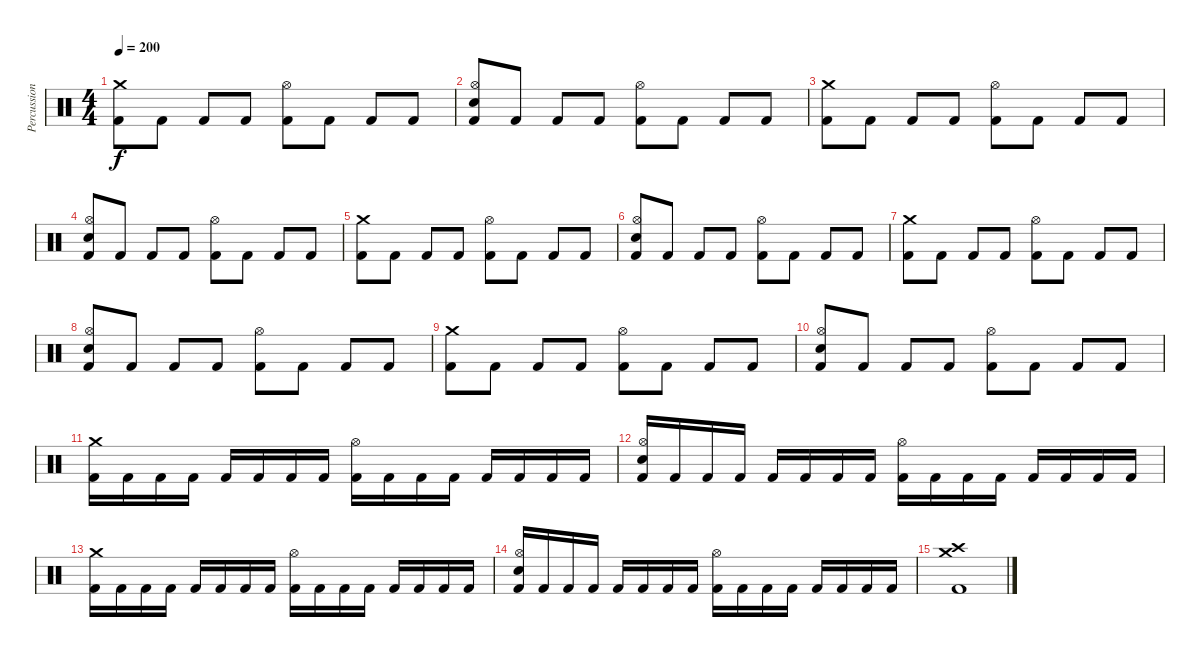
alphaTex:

\track ("Percussions" "Percussion") {instrument percussion}
\staff {score}
\articulation defaults
\ts (4 4)
\tempo 200
\clef neutral
\ks c
("Crash medium (hit)" "Kick (hit) 2").8{dy f} "Kick (hit) 2".8 "Kick (hit) 2".8 "Kick (hit) 2".8 ("Hi-Hat (open)" "Kick (hit) 2").8 "Kick (hit) 2".8 "Kick (hit) 2".8 "Kick (hit) 2".8 |
("Hi-Hat (open)" "Electric Snare (hit)" "Kick (hit) 2").8 "Kick (hit) 2".8 "Kick (hit) 2".8 "Kick (hit) 2".8 ("Hi-Hat (open)" "Kick (hit) 2").8 "Kick (hit) 2".8 "Kick (hit) 2".8 "Kick (hit) 2".8 |
("Crash medium (hit)" "Kick (hit) 2").8 "Kick (hit) 2".8 "Kick (hit) 2".8 "Kick (hit) 2".8 ("Hi-Hat (open)" "Kick (hit) 2").8 "Kick (hit) 2".8 "Kick (hit) 2".8 "Kick (hit) 2".8 |
("Hi-Hat (open)" "Electric Snare (hit)" "Kick (hit) 2").8 "Kick (hit) 2".8 "Kick (hit) 2".8 "Kick (hit) 2".8 ("Hi-Hat (open)" "Kick (hit) 2").8 "Kick (hit) 2".8 "Kick (hit) 2".8 "Kick (hit) 2".8 |
("Crash medium (hit)" "Kick (hit) 2").8 "Kick (hit) 2".8 "Kick (hit) 2".8 "Kick (hit) 2".8 ("Hi-Hat (open)" "Kick (hit) 2").8 "Kick (hit) 2".8 "Kick (hit) 2".8 "Kick (hit) 2".8 |
("Hi-Hat (open)" "Electric Snare (hit)" "Kick (hit) 2").8 "Kick (hit) 2".8 "Kick (hit) 2".8 "Kick (hit) 2".8 ("Hi-Hat (open)" "Kick (hit) 2").8 "Kick (hit) 2".8 "Kick (hit) 2".8 "Kick (hit) 2".8 |
("Crash medium (hit)" "Kick (hit) 2").8 "Kick (hit) 2".8 "Kick (hit) 2".8 "Kick (hit) 2".8 ("Hi-Hat (open)" "Kick (hit) 2").8 "Kick (hit) 2".8 "Kick (hit) 2".8 "Kick (hit) 2".8 |
("Hi-Hat (open)" "Electric Snare (hit)" "Kick (hit) 2").8 "Kick (hit) 2".8 "Kick (hit) 2".8 "Kick (hit) 2".8 ("Hi-Hat (open)" "Kick (hit) 2").8 "Kick (hit) 2".8 "Kick (hit) 2".8 "Kick (hit) 2".8 |
("Crash medium (hit)" "Kick (hit) 2").8 "Kick (hit) 2".8 "Kick (hit) 2".8 "Kick (hit) 2".8 ("Hi-Hat (open)" "Kick (hit) 2").8 "Kick (hit) 2".8 "Kick (hit) 2".8 "Kick (hit) 2".8 |
("Hi-Hat (open)" "Electric Snare (hit)" "Kick (hit) 2").8 "Kick (hit) 2".8 "Kick (hit) 2".8 "Kick (hit) 2".8 ("Hi-Hat (open)" "Kick (hit) 2").8 "Kick (hit) 2".8 "Kick (hit) 2".8 "Kick (hit) 2".8 |
("Crash medium (hit)" "Kick (hit) 2").16 "Kick (hit) 2".16 "Kick (hit) 2".16 "Kick (hit) 2".16 "Kick (hit) 2".16 "Kick (hit) 2".16 "Kick (hit) 2".16 "Kick (hit) 2".16 ("Hi-Hat (open)" "Kick (hit) 2").16 "Kick (hit) 2".16 "Kick (hit) 2".16 "Kick (hit) 2".16 "Kick (hit) 2".16 "Kick (hit) 2".16 "Kick (hit) 2".16 "Kick (hit) 2".16 |
("Hi-Hat (open)" "Electric Snare (hit)" "Kick (hit) 2").16 "Kick (hit) 2".16 "Kick (hit) 2".16 "Kick (hit) 2".16 "Kick (hit) 2".16 "Kick (hit) 2".16 "Kick (hit) 2".16 "Kick (hit) 2".16 ("Hi-Hat (open)" "Kick (hit) 2").16 "Kick (hit) 2".16 "Kick (hit) 2".16 "Kick (hit) 2".16 "Kick (hit) 2".16 "Kick (hit) 2".16 "Kick (hit) 2".16 "Kick (hit) 2".16 |
("Crash medium (hit)" "Kick (hit) 2").16 "Kick (hit) 2".16 "Kick (hit) 2".16 "Kick (hit) 2".16 "Kick (hit) 2".16 "Kick (hit) 2".16 "Kick (hit) 2".16 "Kick (hit) 2".16 ("Hi-Hat (open)" "Kick (hit) 2").16 "Kick (hit) 2".16 "Kick (hit) 2".16 "Kick (hit) 2".16 "Kick (hit) 2".16 "Kick (hit) 2".16 "Kick (hit) 2".16 "Kick (hit) 2".16 |
("Hi-Hat (open)" "Electric Snare (hit)" "Kick (hit) 2").16 "Kick (hit) 2".16 "Kick (hit) 2".16 "Kick (hit) 2".16 "Kick (hit) 2".16 "Kick (hit) 2".16 "Kick (hit) 2".16 "Kick (hit) 2".16 ("Hi-Hat (open)" "Kick (hit) 2").16 "Kick (hit) 2".16 "Kick (hit) 2".16 "Kick (hit) 2".16 "Kick (hit) 2".16 "Kick (hit) 2".16 "Kick (hit) 2".16 "Kick (hit) 2".16 |
("Crash medium (hit)" "Crash high (hit)" "Kick (hit) 2").1
